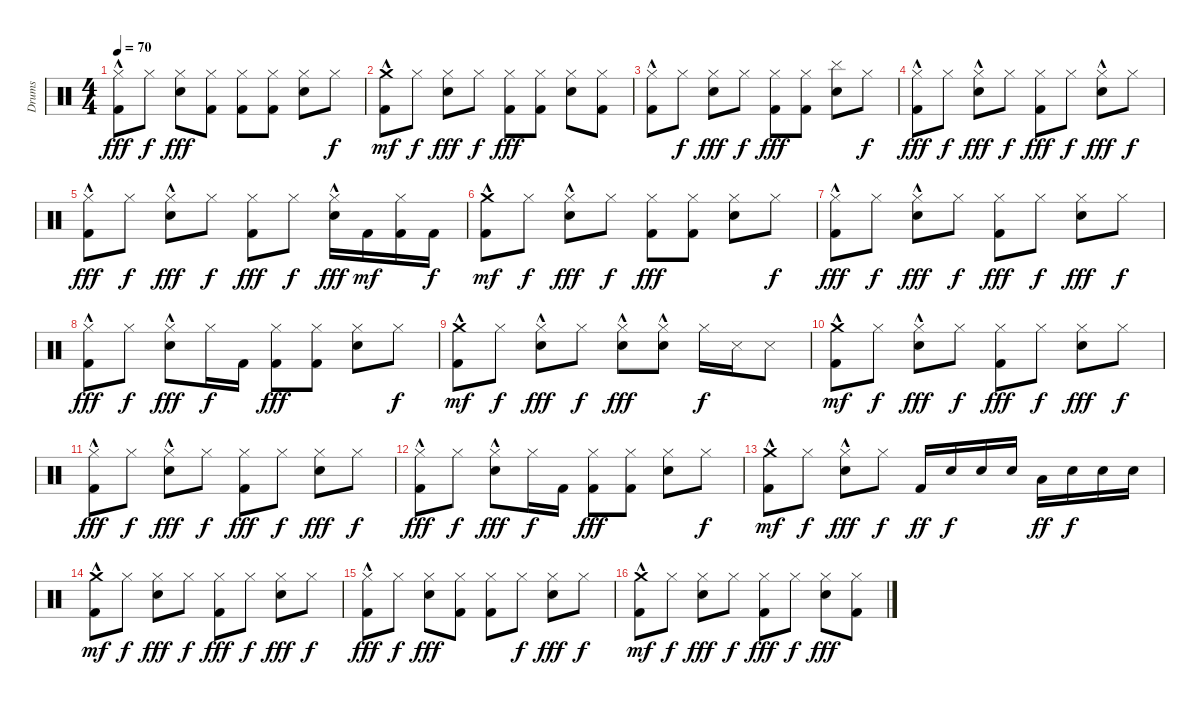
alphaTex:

\track ("Drums" "Drums") {instrument percussion}
\staff {score}
\articulation defaults
\ts (4 4)
\tempo 70
\clef neutral
\ks c
("Kick (hit) 2"{hac} "Hi-Hat (closed)").8{dy fff} "Hi-Hat (closed)".8{dy f} ("Snare (hit) 2" "Hi-Hat (closed)").8{dy fff} ("Hi-Hat (closed)" "Kick (hit) 2").8 ("Kick (hit) 2" "Hi-Hat (closed)").8 ("Kick (hit) 2" "Hi-Hat (closed)").8 ("Snare (hit) 2" "Hi-Hat (closed)").8 "Hi-Hat (closed)".8{dy f} |
("Kick (hit) 2"{hac} "Crash medium (hit)").8{dy mf} "Hi-Hat (closed)".8{dy f} ("Snare (hit) 2" "Hi-Hat (closed)").8{dy fff} "Hi-Hat (closed)".8{dy f} ("Kick (hit) 2" "Hi-Hat (closed)").8{dy fff} ("Kick (hit) 2" "Hi-Hat (closed)").8 ("Snare (hit) 2" "Hi-Hat (closed)").8 ("Kick (hit) 2" "Hi-Hat (closed)").8 |
("Kick (hit) 2"{hac} "Hi-Hat (closed)").8 "Hi-Hat (closed)".8{dy f} ("Snare (hit) 2" "Hi-Hat (closed)").8{dy fff} "Hi-Hat (closed)".8{dy f} ("Kick (hit) 2" "Hi-Hat (closed)").8{dy fff} ("Hi-Hat (closed)" "Kick (hit) 2").8 ("Snare (hit) 2" "Cymbal (hit)").8 "Hi-Hat (closed)".8{dy f} |
("Kick (hit) 2"{hac} "Hi-Hat (closed)").8{dy fff} "Hi-Hat (closed)".8{dy f} ("Hi-Hat (closed)" "Snare (hit) 2"{hac}).8{dy fff} "Hi-Hat (closed)".8{dy f} ("Hi-Hat (closed)" "Kick (hit) 2").8{dy fff} "Hi-Hat (closed)".8{dy f} ("Snare (hit) 2"{hac} "Hi-Hat (closed)").8{dy fff} "Hi-Hat (closed)".8{dy f} |
("Kick (hit) 2"{hac} "Hi-Hat (closed)").8{dy fff} "Hi-Hat (closed)".8{dy f} ("Hi-Hat (closed)" "Snare (hit) 2"{hac}).8{dy fff} "Hi-Hat (closed)".8{dy f} ("Hi-Hat (closed)" "Kick (hit) 2").8{dy fff} "Hi-Hat (closed)".8{dy f} ("Snare (hit) 2"{hac} "Hi-Hat (closed)").16{dy fff} "Kick (hit) 2".16{dy mf} ("Kick (hit) 2" "Hi-Hat (closed)").16 "Kick (hit) 2".16{dy f} |
("Kick (hit) 2"{hac} "Crash medium (hit)").8{dy mf} "Hi-Hat (closed)".8{dy f} ("Snare (hit) 2"{hac} "Hi-Hat (closed)").8{dy fff} "Hi-Hat (closed)".8{dy f} ("Kick (hit) 2" "Hi-Hat (closed)").8{dy fff} ("Kick (hit) 2" "Hi-Hat (closed)").8 ("Hi-Hat (closed)" "Snare (hit) 2").8 "Hi-Hat (closed)".8{dy f} |
("Kick (hit) 2"{hac} "Hi-Hat (closed)").8{dy fff} "Hi-Hat (closed)".8{dy f} ("Snare (hit) 2"{hac} "Hi-Hat (closed)").8{dy fff} "Hi-Hat (closed)".8{dy f} ("Kick (hit) 2" "Hi-Hat (closed)").8{dy fff} "Hi-Hat (closed)".8{dy f} ("Hi-Hat (closed)" "Snare (hit) 2").8{dy fff} "Hi-Hat (closed)".8{dy f} |
("Kick (hit) 2"{hac} "Hi-Hat (closed)").8{dy fff} "Hi-Hat (closed)".8{dy f} ("Snare (hit) 2"{hac} "Hi-Hat (closed)").8{dy fff} "Hi-Hat (closed)".16{dy f} "Kick (hit) 2".16 ("Kick (hit) 2" "Hi-Hat (closed)").8{dy fff} ("Kick (hit) 2" "Hi-Hat (closed)").8 ("Hi-Hat (closed)" "Snare (hit) 2").8 "Hi-Hat (closed)".8{dy f} |
("Kick (hit) 2"{hac} "Crash medium (hit)").8{dy mf} "Hi-Hat (closed)".8{dy f} ("Snare (hit) 2"{hac} "Hi-Hat (closed)").8{dy fff} "Hi-Hat (closed)".8{dy f} ("Snare (hit) 2"{hac} "Hi-Hat (closed)").8{dy fff} ("Snare (hit) 2"{hac} "Hi-Hat (closed)").8 "Hi-Hat (closed)".16{dy f} "Snare (side stick) 3".16 "Snare (side stick) 3".8 |
("Kick (hit) 2"{hac} "Crash medium (hit)").8{dy mf} "Hi-Hat (closed)".8{dy f} ("Snare (hit) 2"{hac} "Hi-Hat (closed)").8{dy fff} "Hi-Hat (closed)".8{dy f} ("Kick (hit) 2" "Hi-Hat (closed)").8{dy fff} "Hi-Hat (closed)".8{dy f} ("Hi-Hat (closed)" "Snare (hit) 2").8{dy fff} "Hi-Hat (closed)".8{dy f} |
("Kick (hit) 2"{hac} "Hi-Hat (closed)").8{dy fff} "Hi-Hat (closed)".8{dy f} ("Snare (hit) 2"{hac} "Hi-Hat (closed)").8{dy fff} "Hi-Hat (closed)".8{dy f} ("Kick (hit) 2" "Hi-Hat (closed)").8{dy fff} "Hi-Hat (closed)".8{dy f} ("Hi-Hat (closed)" "Snare (hit) 2").8{dy fff} "Hi-Hat (closed)".8{dy f} |
("Kick (hit) 2"{hac} "Hi-Hat (closed)").8{dy fff} "Hi-Hat (closed)".8{dy f} ("Snare (hit) 2"{hac} "Hi-Hat (closed)").8{dy fff} "Hi-Hat (closed)".16{dy f} "Kick (hit) 2".16 ("Kick (hit) 2" "Hi-Hat (closed)").8{dy fff} ("Kick (hit) 2" "Hi-Hat (closed)").8 ("Hi-Hat (closed)" "Snare (hit) 2").8 "Hi-Hat (closed)".8{dy f} |
("Kick (hit) 2"{hac} "Crash medium (hit)").8{dy mf} "Hi-Hat (closed)".8{dy f} ("Snare (hit) 2"{hac} "Hi-Hat (closed)").8{dy fff} "Hi-Hat (closed)".8{dy f} "Kick (hit) 2".16{dy ff} "Electric Snare (hit)".16{dy f} "Electric Snare (hit)".16 "Electric Snare (hit)".16 "Low Tom (hit)".16{dy ff} "Electric Snare (hit)".16{dy f} "Electric Snare (hit)".16 "Electric Snare (hit)".16 |
("Kick (hit) 2"{hac} "Crash medium (hit)").8{dy mf} "Hi-Hat (closed)".8{dy f} ("Snare (hit) 2" "Hi-Hat (closed)").8{dy fff} "Hi-Hat (closed)".8{dy f} ("Kick (hit) 2" "Hi-Hat (closed)").8{dy fff} "Hi-Hat (closed)".8{dy f} ("Snare (hit) 2" "Hi-Hat (closed)").8{dy fff} "Hi-Hat (closed)".8{dy f} |
("Kick (hit) 2"{hac} "Hi-Hat (closed)").8{dy fff} "Hi-Hat (closed)".8{dy f} ("Snare (hit) 2" "Hi-Hat (closed)").8{dy fff} ("Hi-Hat (closed)" "Kick (hit) 2").8 ("Kick (hit) 2" "Hi-Hat (closed)").8 "Hi-Hat (closed)".8{dy f} ("Snare (hit) 2" "Hi-Hat (closed)").8{dy fff} "Hi-Hat (closed)".8{dy f} |
("Kick (hit) 2"{hac} "Crash medium (hit)").8{dy mf} "Hi-Hat (closed)".8{dy f} ("Snare (hit) 2" "Hi-Hat (closed)").8{dy fff} "Hi-Hat (closed)".8{dy f} ("Kick (hit) 2" "Hi-Hat (closed)").8{dy fff} "Hi-Hat (closed)".8{dy f} ("Snare (hit) 2" "Hi-Hat (closed)").8{dy fff} ("Kick (hit) 2" "Hi-Hat (closed)").8
